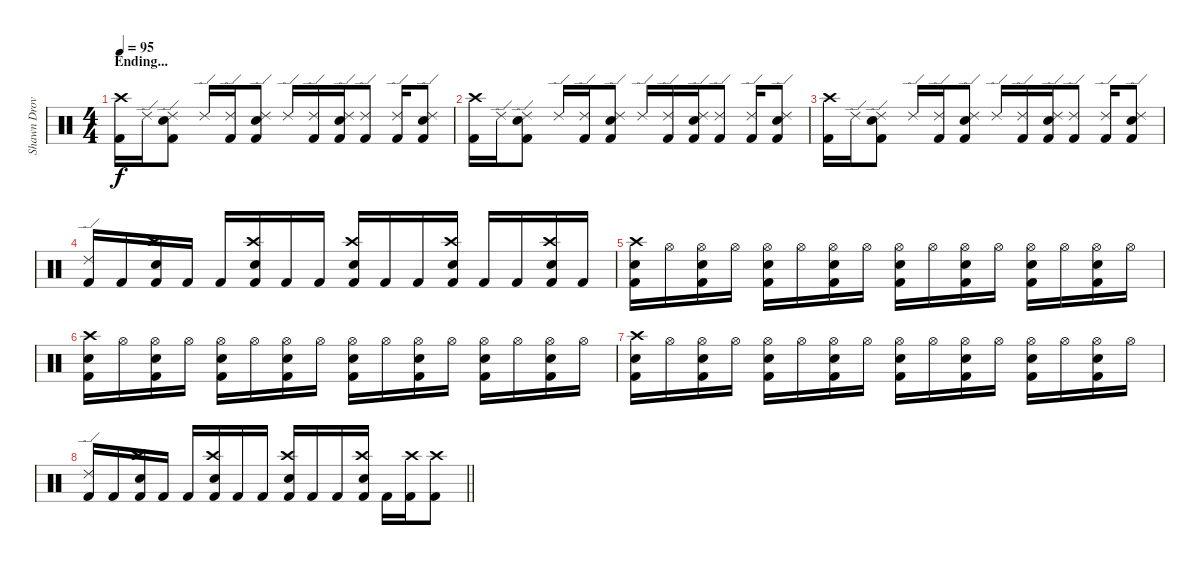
\track ("Shawn Drover " "Shawn Drov") {instrument percussion}
\staff {score}
\articulation defaults
\ts (4 4)
\section ("" "Ending...")
\tempo 95
\clef neutral
\ks c
("Kick (hit) 2" "Crash high (hit)").16{dy f} "Ride (edge) 2".16 ("Kick (hit) 2" "Snare (hit) 2" "Ride (edge) 2").8 "Ride (edge) 2".16 ("Kick (hit) 2" "Ride (edge) 2").16 ("Kick (hit) 2" "Snare (hit) 2" "Ride (edge) 2").8 "Ride (edge) 2".16 ("Kick (hit) 2" "Ride (edge) 2").16 ("Kick (hit) 2" "Snare (hit) 2" "Ride (edge) 2").16 ("Kick (hit) 2" "Ride (edge) 2").8 ("Kick (hit) 2" "Ride (edge) 2").16 ("Kick (hit) 2" "Snare (hit) 2" "Ride (edge) 2").8 |
("Kick (hit) 2" "Crash high (hit)").16 "Ride (edge) 2".16 ("Kick (hit) 2" "Snare (hit) 2" "Ride (edge) 2").8 "Ride (edge) 2".16 ("Kick (hit) 2" "Ride (edge) 2").16 ("Kick (hit) 2" "Snare (hit) 2" "Ride (edge) 2").8 "Ride (edge) 2".16 ("Kick (hit) 2" "Ride (edge) 2").16 ("Kick (hit) 2" "Snare (hit) 2" "Ride (edge) 2").16 ("Kick (hit) 2" "Ride (edge) 2").8 ("Kick (hit) 2" "Ride (edge) 2").16 ("Kick (hit) 2" "Snare (hit) 2" "Ride (edge) 2").8 |
("Kick (hit) 2" "Crash high (hit)").16 "Ride (edge) 2".16 ("Kick (hit) 2" "Snare (hit) 2" "Ride (edge) 2").8 "Ride (edge) 2".16 ("Kick (hit) 2" "Ride (edge) 2").16 ("Kick (hit) 2" "Snare (hit) 2" "Ride (edge) 2").8 "Ride (edge) 2".16 ("Kick (hit) 2" "Ride (edge) 2").16 ("Kick (hit) 2" "Snare (hit) 2" "Ride (edge) 2").16 ("Kick (hit) 2" "Ride (edge) 2").8 ("Kick (hit) 2" "Ride (edge) 2").16 ("Kick (hit) 2" "Snare (hit) 2" "Ride (edge) 2").8 |
("Kick (hit) 2" "Ride (edge) 2").16 "Kick (hit) 2".16 ("Kick (hit) 2" "Snare (hit) 2" "Crash high (hit)").16 "Kick (hit) 2".16 "Kick (hit) 2".16 ("Kick (hit) 2" "Snare (hit) 2" "Crash high (hit)").16 "Kick (hit) 2".16 "Kick (hit) 2".16 ("Kick (hit) 2" "Snare (hit) 2" "Crash high (hit)").16 "Kick (hit) 2".16 "Kick (hit) 2".16 ("Kick (hit) 2" "Snare (hit) 2" "Crash high (hit)").16 "Kick (hit) 2".16 "Kick (hit) 2".16 ("Kick (hit) 2" "Snare (hit) 2" "Crash high (hit)").16 "Kick (hit) 2".16 |
("Kick (hit) 2" "Snare (hit) 2" "Crash high (hit)").16 "Hi-Hat (open)".16 ("Kick (hit) 2" "Snare (hit) 2" "Hi-Hat (open)").16 "Hi-Hat (open)".16 ("Kick (hit) 2" "Snare (hit) 2" "Hi-Hat (open)").16 "Hi-Hat (open)".16 ("Kick (hit) 2" "Snare (hit) 2" "Hi-Hat (open)").16 "Hi-Hat (open)".16 ("Kick (hit) 2" "Snare (hit) 2" "Hi-Hat (open)").16 "Hi-Hat (open)".16 ("Kick (hit) 2" "Snare (hit) 2" "Hi-Hat (open)").16 "Hi-Hat (open)".16 ("Kick (hit) 2" "Snare (hit) 2" "Hi-Hat (open)").16 "Hi-Hat (open)".16 ("Kick (hit) 2" "Snare (hit) 2" "Hi-Hat (open)").16 "Hi-Hat (open)".16 |
("Kick (hit) 2" "Snare (hit) 2" "Crash high (hit)").16 "Hi-Hat (open)".16 ("Kick (hit) 2" "Snare (hit) 2" "Hi-Hat (open)").16 "Hi-Hat (open)".16 ("Kick (hit) 2" "Snare (hit) 2" "Hi-Hat (open)").16 "Hi-Hat (open)".16 ("Kick (hit) 2" "Snare (hit) 2" "Hi-Hat (open)").16 "Hi-Hat (open)".16 ("Kick (hit) 2" "Snare (hit) 2" "Hi-Hat (open)").16 "Hi-Hat (open)".16 ("Kick (hit) 2" "Snare (hit) 2" "Hi-Hat (open)").16 "Hi-Hat (open)".16 ("Kick (hit) 2" "Snare (hit) 2" "Hi-Hat (open)").16 "Hi-Hat (open)".16 ("Kick (hit) 2" "Snare (hit) 2" "Hi-Hat (open)").16 "Hi-Hat (open)".16 |
("Kick (hit) 2" "Snare (hit) 2" "Crash high (hit)").16 "Hi-Hat (open)".16 ("Kick (hit) 2" "Snare (hit) 2" "Hi-Hat (open)").16 "Hi-Hat (open)".16 ("Kick (hit) 2" "Snare (hit) 2" "Hi-Hat (open)").16 "Hi-Hat (open)".16 ("Kick (hit) 2" "Snare (hit) 2" "Hi-Hat (open)").16 "Hi-Hat (open)".16 ("Kick (hit) 2" "Snare (hit) 2" "Hi-Hat (open)").16 "Hi-Hat (open)".16 ("Kick (hit) 2" "Snare (hit) 2" "Hi-Hat (open)").16 "Hi-Hat (open)".16 ("Kick (hit) 2" "Snare (hit) 2" "Hi-Hat (open)").16 "Hi-Hat (open)".16 ("Kick (hit) 2" "Snare (hit) 2" "Hi-Hat (open)").16 "Hi-Hat (open)".16 |
\barLineRight lightlight
("Kick (hit) 2" "Ride (edge) 2").16 "Kick (hit) 2".16 ("Kick (hit) 2" "Snare (hit) 2" "Crash high (hit)").16 "Kick (hit) 2".16 "Kick (hit) 2".16 ("Kick (hit) 2" "Snare (hit) 2" "Crash high (hit)").16 "Kick (hit) 2".16 "Kick (hit) 2".16 ("Kick (hit) 2" "Snare (hit) 2" "Crash high (hit)").16 "Kick (hit) 2".16 "Kick (hit) 2".16 ("Kick (hit) 2" "Snare (hit) 2" "Crash high (hit)").16 "Kick (hit) 2".16 ("Kick (hit) 2" "Crash high (hit)").16 ("Kick (hit) 2" "Crash high (hit)").8
